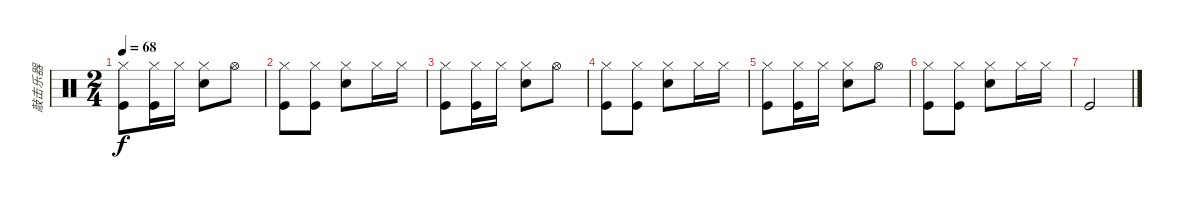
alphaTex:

\track ("敲击乐器" "敲击乐器") {instrument percussion}
\staff {score}
\articulation defaults
\ts (2 4)
\tempo 68
\clef neutral
\ks c
("Hi-Hat (closed)" "Kick (hit)").8{dy f} ("Hi-Hat (closed)" "Kick (hit)").16 "Hi-Hat (closed)".16 ("Hi-Hat (closed)" "Snare (hit) 2").8 "Hi-Hat (open)".8 |
("Hi-Hat (closed)" "Kick (hit)").8 ("Hi-Hat (closed)" "Kick (hit)").8 ("Hi-Hat (closed)" "Snare (hit) 2").8 "Hi-Hat (closed)".16 "Hi-Hat (closed)".16 |
("Hi-Hat (closed)" "Kick (hit)").8 ("Hi-Hat (closed)" "Kick (hit)").16 "Hi-Hat (closed)".16 ("Hi-Hat (closed)" "Snare (hit) 2").8 "Hi-Hat (open)".8 |
("Hi-Hat (closed)" "Kick (hit)").8 ("Hi-Hat (closed)" "Kick (hit)").8 ("Hi-Hat (closed)" "Snare (hit) 2").8 "Hi-Hat (closed)".16 "Hi-Hat (closed)".16 |
("Hi-Hat (closed)" "Kick (hit)").8 ("Hi-Hat (closed)" "Kick (hit)").16 "Hi-Hat (closed)".16 ("Hi-Hat (closed)" "Snare (hit) 2").8 "Hi-Hat (open)".8 |
("Hi-Hat (closed)" "Kick (hit)").8 ("Hi-Hat (closed)" "Kick (hit)").8 ("Hi-Hat (closed)" "Snare (hit) 2").8 "Hi-Hat (closed)".16 "Hi-Hat (closed)".16 |
"Kick (hit)".2
